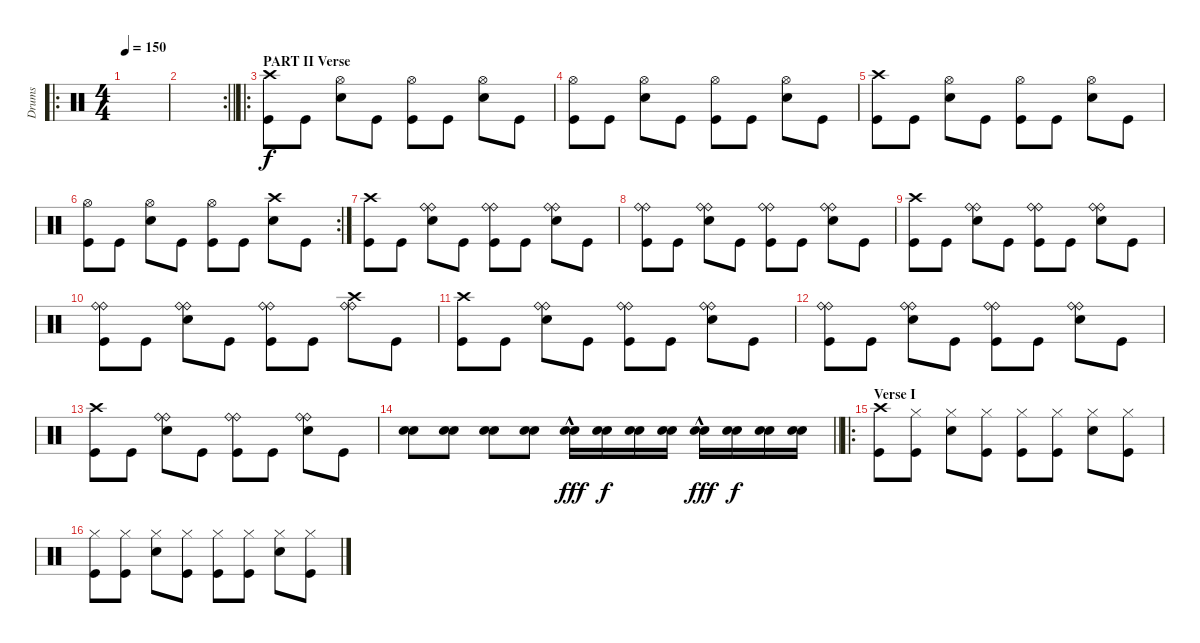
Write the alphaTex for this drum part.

\track ("Drums" "Drums") {instrument percussion}
\staff {score}
\articulation defaults
\ro
\ts (4 4)
\tempo 150
\clef neutral
\ks c
|
\rc 2
\barLineRight lightlight
|
\ro
\section ("" "PART II Verse")
("Crash high (hit)" "Kick (hit)").8 "Kick (hit)".8 ("Electric Snare (hit)" "Hi-Hat (open)").8 "Kick (hit)".8 ("Kick (hit)" "Hi-Hat (open)").8 "Kick (hit)".8 ("Electric Snare (hit)" "Hi-Hat (open)").8 "Kick (hit)".8 |
("Kick (hit)" "Hi-Hat (open)").8 "Kick (hit)".8 ("Electric Snare (hit)" "Hi-Hat (open)").8 "Kick (hit)".8 ("Kick (hit)" "Hi-Hat (open)").8 "Kick (hit)".8 ("Electric Snare (hit)" "Hi-Hat (open)").8 "Kick (hit)".8 |
("Crash high (hit)" "Kick (hit)").8 "Kick (hit)".8 ("Electric Snare (hit)" "Hi-Hat (open)").8 "Kick (hit)".8 ("Kick (hit)" "Hi-Hat (open)").8 "Kick (hit)".8 ("Electric Snare (hit)" "Hi-Hat (open)").8 "Kick (hit)".8 |
\rc 2
("Kick (hit)" "Hi-Hat (open)").8 "Kick (hit)".8 ("Electric Snare (hit)" "Hi-Hat (open)").8 "Kick (hit)".8 ("Kick (hit)" "Hi-Hat (open)").8 "Kick (hit)".8 ("Crash high (hit)" "Electric Snare (hit)").8 "Kick (hit)".8 |
("Crash high (hit)" "Kick (hit)").8 "Kick (hit)".8 ("Electric Snare (hit)" "Ride (bell)" "Ride (bell)").8 "Kick (hit)".8 ("Kick (hit)" "Ride (bell)" "Ride (bell)").8 "Kick (hit)".8 ("Electric Snare (hit)" "Ride (bell)" "Ride (bell)").8 "Kick (hit)".8 |
("Kick (hit)" "Ride (bell)" "Ride (bell)").8 "Kick (hit)".8 ("Electric Snare (hit)" "Ride (bell)" "Ride (bell)").8 "Kick (hit)".8 ("Kick (hit)" "Ride (bell)" "Ride (bell)").8 "Kick (hit)".8 ("Electric Snare (hit)" "Ride (bell)" "Ride (bell)").8 "Kick (hit)".8 |
("Crash high (hit)" "Kick (hit)").8 "Kick (hit)".8 ("Electric Snare (hit)" "Ride (bell)" "Ride (bell)").8 "Kick (hit)".8 ("Kick (hit)" "Ride (bell)" "Ride (bell)").8 "Kick (hit)".8 ("Electric Snare (hit)" "Ride (bell)" "Ride (bell)").8 "Kick (hit)".8 |
("Kick (hit)" "Ride (bell)" "Ride (bell)").8 "Kick (hit)".8 ("Electric Snare (hit)" "Ride (bell)" "Ride (bell)").8 "Kick (hit)".8 ("Kick (hit)" "Ride (bell)" "Ride (bell)").8 "Kick (hit)".8 ("Crash high (hit)" "Ride (bell)" "Ride (bell)").8 "Kick (hit)".8 |
("Crash high (hit)" "Kick (hit)").8 "Kick (hit)".8 ("Electric Snare (hit)" "Ride (bell)" "Ride (bell)").8 "Kick (hit)".8 ("Kick (hit)" "Ride (bell)" "Ride (bell)").8 "Kick (hit)".8 ("Electric Snare (hit)" "Ride (bell)" "Ride (bell)").8 "Kick (hit)".8 |
("Kick (hit)" "Ride (bell)" "Ride (bell)").8 "Kick (hit)".8 ("Electric Snare (hit)" "Ride (bell)" "Ride (bell)").8 "Kick (hit)".8 ("Kick (hit)" "Ride (bell)" "Ride (bell)").8 "Kick (hit)".8 ("Electric Snare (hit)" "Ride (bell)" "Ride (bell)").8 "Kick (hit)".8 |
("Crash high (hit)" "Kick (hit)").8 "Kick (hit)".8 ("Electric Snare (hit)" "Ride (bell)" "Ride (bell)").8 "Kick (hit)".8 ("Kick (hit)" "Ride (bell)" "Ride (bell)").8 "Kick (hit)".8 ("Electric Snare (hit)" "Ride (bell)" "Ride (bell)").8 "Kick (hit)".8 |
\barLineRight lightlight
("Electric Snare (hit)" "Electric Snare (hit)").8 ("Electric Snare (hit)" "Electric Snare (hit)").8 ("Electric Snare (hit)" "Electric Snare (hit)").8 ("Electric Snare (hit)" "Electric Snare (hit)").8 ("Electric Snare (hit)"{hac} "Electric Snare (hit)"{hac}).16{dy fff} ("Electric Snare (hit)" "Electric Snare (hit)").16{dy f} ("Electric Snare (hit)" "Electric Snare (hit)").16 ("Electric Snare (hit)" "Electric Snare (hit)").16 ("Electric Snare (hit)"{hac} "Electric Snare (hit)"{hac}).16{dy fff} ("Electric Snare (hit)" "Electric Snare (hit)").16{dy f} ("Electric Snare (hit)" "Electric Snare (hit)").16 ("Electric Snare (hit)" "Electric Snare (hit)").16 |
\ro
\section ("" "Verse I")
("Crash high (hit)" "Kick (hit)").8 ("Kick (hit)" "Hi-Hat (closed)").8 ("Electric Snare (hit)" "Hi-Hat (closed)").8 ("Kick (hit)" "Hi-Hat (closed)").8 ("Kick (hit)" "Hi-Hat (closed)").8 ("Kick (hit)" "Hi-Hat (closed)").8 ("Electric Snare (hit)" "Hi-Hat (closed)").8 ("Kick (hit)" "Hi-Hat (closed)").8 |
("Kick (hit)" "Hi-Hat (closed)").8 ("Kick (hit)" "Hi-Hat (closed)").8 ("Electric Snare (hit)" "Hi-Hat (closed)").8 ("Kick (hit)" "Hi-Hat (closed)").8 ("Kick (hit)" "Hi-Hat (closed)").8 ("Kick (hit)" "Hi-Hat (closed)").8 ("Electric Snare (hit)" "Hi-Hat (closed)").8 ("Kick (hit)" "Hi-Hat (closed)").8
